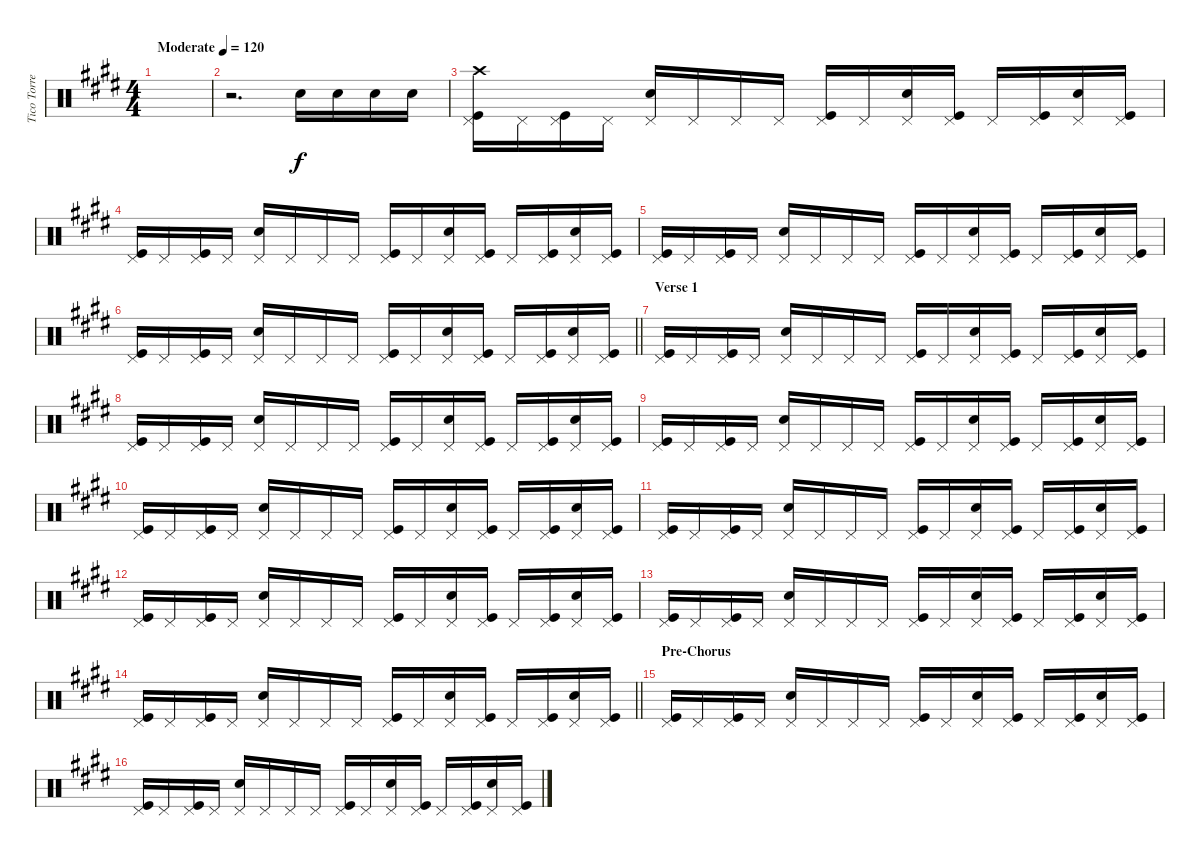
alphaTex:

\track ("Tico Torres (Drums)" "Tico Torre") {instrument percussion}
\staff {score}
\articulation defaults
\ts (4 4)
\tempo (120 "Moderate")
\clef neutral
\ks c#minor
|
r.2{d} "Electric Snare (hit)".16 "Electric Snare (hit)".16 "Electric Snare (hit)".16 "Electric Snare (hit)".16 |
("Crash high (hit)" "Pedal Hi-Hat (hit)" "Kick (hit)").16 "Pedal Hi-Hat (hit)".16 ("Pedal Hi-Hat (hit)" "Kick (hit)").16 "Pedal Hi-Hat (hit)".16 ("Electric Snare (hit)" "Pedal Hi-Hat (hit)").16 "Pedal Hi-Hat (hit)".16 "Pedal Hi-Hat (hit)".16 "Pedal Hi-Hat (hit)".16 ("Pedal Hi-Hat (hit)" "Kick (hit)").16 "Pedal Hi-Hat (hit)".16 ("Electric Snare (hit)" "Pedal Hi-Hat (hit)").16 ("Pedal Hi-Hat (hit)" "Kick (hit)").16 "Pedal Hi-Hat (hit)".16 ("Pedal Hi-Hat (hit)" "Kick (hit)").16 ("Electric Snare (hit)" "Pedal Hi-Hat (hit)").16 ("Pedal Hi-Hat (hit)" "Kick (hit)").16 |
("Pedal Hi-Hat (hit)" "Kick (hit)").16 "Pedal Hi-Hat (hit)".16 ("Pedal Hi-Hat (hit)" "Kick (hit)").16 "Pedal Hi-Hat (hit)".16 ("Electric Snare (hit)" "Pedal Hi-Hat (hit)").16 "Pedal Hi-Hat (hit)".16 "Pedal Hi-Hat (hit)".16 "Pedal Hi-Hat (hit)".16 ("Pedal Hi-Hat (hit)" "Kick (hit)").16 "Pedal Hi-Hat (hit)".16 ("Electric Snare (hit)" "Pedal Hi-Hat (hit)").16 ("Pedal Hi-Hat (hit)" "Kick (hit)").16 "Pedal Hi-Hat (hit)".16 ("Pedal Hi-Hat (hit)" "Kick (hit)").16 ("Electric Snare (hit)" "Pedal Hi-Hat (hit)").16 ("Pedal Hi-Hat (hit)" "Kick (hit)").16 |
("Pedal Hi-Hat (hit)" "Kick (hit)").16 "Pedal Hi-Hat (hit)".16 ("Pedal Hi-Hat (hit)" "Kick (hit)").16 "Pedal Hi-Hat (hit)".16 ("Electric Snare (hit)" "Pedal Hi-Hat (hit)").16 "Pedal Hi-Hat (hit)".16 "Pedal Hi-Hat (hit)".16 "Pedal Hi-Hat (hit)".16 ("Pedal Hi-Hat (hit)" "Kick (hit)").16 "Pedal Hi-Hat (hit)".16 ("Electric Snare (hit)" "Pedal Hi-Hat (hit)").16 ("Pedal Hi-Hat (hit)" "Kick (hit)").16 "Pedal Hi-Hat (hit)".16 ("Pedal Hi-Hat (hit)" "Kick (hit)").16 ("Electric Snare (hit)" "Pedal Hi-Hat (hit)").16 ("Pedal Hi-Hat (hit)" "Kick (hit)").16 |
\barLineRight lightlight
("Pedal Hi-Hat (hit)" "Kick (hit)").16 "Pedal Hi-Hat (hit)".16 ("Pedal Hi-Hat (hit)" "Kick (hit)").16 "Pedal Hi-Hat (hit)".16 ("Electric Snare (hit)" "Pedal Hi-Hat (hit)").16 "Pedal Hi-Hat (hit)".16 "Pedal Hi-Hat (hit)".16 "Pedal Hi-Hat (hit)".16 ("Pedal Hi-Hat (hit)" "Kick (hit)").16 "Pedal Hi-Hat (hit)".16 ("Electric Snare (hit)" "Pedal Hi-Hat (hit)").16 ("Pedal Hi-Hat (hit)" "Kick (hit)").16 "Pedal Hi-Hat (hit)".16 ("Pedal Hi-Hat (hit)" "Kick (hit)").16 ("Electric Snare (hit)" "Pedal Hi-Hat (hit)").16 ("Pedal Hi-Hat (hit)" "Kick (hit)").16 |
\section ("" "Verse 1")
("Pedal Hi-Hat (hit)" "Kick (hit)").16 "Pedal Hi-Hat (hit)".16 ("Pedal Hi-Hat (hit)" "Kick (hit)").16 "Pedal Hi-Hat (hit)".16 ("Electric Snare (hit)" "Pedal Hi-Hat (hit)").16 "Pedal Hi-Hat (hit)".16 "Pedal Hi-Hat (hit)".16 "Pedal Hi-Hat (hit)".16 ("Pedal Hi-Hat (hit)" "Kick (hit)").16 "Pedal Hi-Hat (hit)".16 ("Electric Snare (hit)" "Pedal Hi-Hat (hit)").16 ("Pedal Hi-Hat (hit)" "Kick (hit)").16 "Pedal Hi-Hat (hit)".16 ("Pedal Hi-Hat (hit)" "Kick (hit)").16 ("Electric Snare (hit)" "Pedal Hi-Hat (hit)").16 ("Pedal Hi-Hat (hit)" "Kick (hit)").16 |
("Pedal Hi-Hat (hit)" "Kick (hit)").16 "Pedal Hi-Hat (hit)".16 ("Pedal Hi-Hat (hit)" "Kick (hit)").16 "Pedal Hi-Hat (hit)".16 ("Electric Snare (hit)" "Pedal Hi-Hat (hit)").16 "Pedal Hi-Hat (hit)".16 "Pedal Hi-Hat (hit)".16 "Pedal Hi-Hat (hit)".16 ("Pedal Hi-Hat (hit)" "Kick (hit)").16 "Pedal Hi-Hat (hit)".16 ("Electric Snare (hit)" "Pedal Hi-Hat (hit)").16 ("Pedal Hi-Hat (hit)" "Kick (hit)").16 "Pedal Hi-Hat (hit)".16 ("Pedal Hi-Hat (hit)" "Kick (hit)").16 ("Electric Snare (hit)" "Pedal Hi-Hat (hit)").16 ("Pedal Hi-Hat (hit)" "Kick (hit)").16 |
("Pedal Hi-Hat (hit)" "Kick (hit)").16 "Pedal Hi-Hat (hit)".16 ("Pedal Hi-Hat (hit)" "Kick (hit)").16 "Pedal Hi-Hat (hit)".16 ("Electric Snare (hit)" "Pedal Hi-Hat (hit)").16 "Pedal Hi-Hat (hit)".16 "Pedal Hi-Hat (hit)".16 "Pedal Hi-Hat (hit)".16 ("Pedal Hi-Hat (hit)" "Kick (hit)").16 "Pedal Hi-Hat (hit)".16 ("Electric Snare (hit)" "Pedal Hi-Hat (hit)").16 ("Pedal Hi-Hat (hit)" "Kick (hit)").16 "Pedal Hi-Hat (hit)".16 ("Pedal Hi-Hat (hit)" "Kick (hit)").16 ("Electric Snare (hit)" "Pedal Hi-Hat (hit)").16 ("Pedal Hi-Hat (hit)" "Kick (hit)").16 |
("Pedal Hi-Hat (hit)" "Kick (hit)").16 "Pedal Hi-Hat (hit)".16 ("Pedal Hi-Hat (hit)" "Kick (hit)").16 "Pedal Hi-Hat (hit)".16 ("Electric Snare (hit)" "Pedal Hi-Hat (hit)").16 "Pedal Hi-Hat (hit)".16 "Pedal Hi-Hat (hit)".16 "Pedal Hi-Hat (hit)".16 ("Pedal Hi-Hat (hit)" "Kick (hit)").16 "Pedal Hi-Hat (hit)".16 ("Electric Snare (hit)" "Pedal Hi-Hat (hit)").16 ("Pedal Hi-Hat (hit)" "Kick (hit)").16 "Pedal Hi-Hat (hit)".16 ("Pedal Hi-Hat (hit)" "Kick (hit)").16 ("Electric Snare (hit)" "Pedal Hi-Hat (hit)").16 ("Pedal Hi-Hat (hit)" "Kick (hit)").16 |
("Pedal Hi-Hat (hit)" "Kick (hit)").16 "Pedal Hi-Hat (hit)".16 ("Pedal Hi-Hat (hit)" "Kick (hit)").16 "Pedal Hi-Hat (hit)".16 ("Electric Snare (hit)" "Pedal Hi-Hat (hit)").16 "Pedal Hi-Hat (hit)".16 "Pedal Hi-Hat (hit)".16 "Pedal Hi-Hat (hit)".16 ("Pedal Hi-Hat (hit)" "Kick (hit)").16 "Pedal Hi-Hat (hit)".16 ("Electric Snare (hit)" "Pedal Hi-Hat (hit)").16 ("Pedal Hi-Hat (hit)" "Kick (hit)").16 "Pedal Hi-Hat (hit)".16 ("Pedal Hi-Hat (hit)" "Kick (hit)").16 ("Electric Snare (hit)" "Pedal Hi-Hat (hit)").16 ("Pedal Hi-Hat (hit)" "Kick (hit)").16 |
("Pedal Hi-Hat (hit)" "Kick (hit)").16 "Pedal Hi-Hat (hit)".16 ("Pedal Hi-Hat (hit)" "Kick (hit)").16 "Pedal Hi-Hat (hit)".16 ("Electric Snare (hit)" "Pedal Hi-Hat (hit)").16 "Pedal Hi-Hat (hit)".16 "Pedal Hi-Hat (hit)".16 "Pedal Hi-Hat (hit)".16 ("Pedal Hi-Hat (hit)" "Kick (hit)").16 "Pedal Hi-Hat (hit)".16 ("Electric Snare (hit)" "Pedal Hi-Hat (hit)").16 ("Pedal Hi-Hat (hit)" "Kick (hit)").16 "Pedal Hi-Hat (hit)".16 ("Pedal Hi-Hat (hit)" "Kick (hit)").16 ("Electric Snare (hit)" "Pedal Hi-Hat (hit)").16 ("Pedal Hi-Hat (hit)" "Kick (hit)").16 |
("Pedal Hi-Hat (hit)" "Kick (hit)").16 "Pedal Hi-Hat (hit)".16 ("Pedal Hi-Hat (hit)" "Kick (hit)").16 "Pedal Hi-Hat (hit)".16 ("Electric Snare (hit)" "Pedal Hi-Hat (hit)").16 "Pedal Hi-Hat (hit)".16 "Pedal Hi-Hat (hit)".16 "Pedal Hi-Hat (hit)".16 ("Pedal Hi-Hat (hit)" "Kick (hit)").16 "Pedal Hi-Hat (hit)".16 ("Electric Snare (hit)" "Pedal Hi-Hat (hit)").16 ("Pedal Hi-Hat (hit)" "Kick (hit)").16 "Pedal Hi-Hat (hit)".16 ("Pedal Hi-Hat (hit)" "Kick (hit)").16 ("Electric Snare (hit)" "Pedal Hi-Hat (hit)").16 ("Pedal Hi-Hat (hit)" "Kick (hit)").16 |
\barLineRight lightlight
("Pedal Hi-Hat (hit)" "Kick (hit)").16 "Pedal Hi-Hat (hit)".16 ("Pedal Hi-Hat (hit)" "Kick (hit)").16 "Pedal Hi-Hat (hit)".16 ("Electric Snare (hit)" "Pedal Hi-Hat (hit)").16 "Pedal Hi-Hat (hit)".16 "Pedal Hi-Hat (hit)".16 "Pedal Hi-Hat (hit)".16 ("Pedal Hi-Hat (hit)" "Kick (hit)").16 "Pedal Hi-Hat (hit)".16 ("Electric Snare (hit)" "Pedal Hi-Hat (hit)").16 ("Pedal Hi-Hat (hit)" "Kick (hit)").16 "Pedal Hi-Hat (hit)".16 ("Pedal Hi-Hat (hit)" "Kick (hit)").16 ("Electric Snare (hit)" "Pedal Hi-Hat (hit)").16 ("Pedal Hi-Hat (hit)" "Kick (hit)").16 |
\section ("" "Pre-Chorus")
("Pedal Hi-Hat (hit)" "Kick (hit)").16 "Pedal Hi-Hat (hit)".16 ("Pedal Hi-Hat (hit)" "Kick (hit)").16 "Pedal Hi-Hat (hit)".16 ("Electric Snare (hit)" "Pedal Hi-Hat (hit)").16 "Pedal Hi-Hat (hit)".16 "Pedal Hi-Hat (hit)".16 "Pedal Hi-Hat (hit)".16 ("Pedal Hi-Hat (hit)" "Kick (hit)").16 "Pedal Hi-Hat (hit)".16 ("Electric Snare (hit)" "Pedal Hi-Hat (hit)").16 ("Pedal Hi-Hat (hit)" "Kick (hit)").16 "Pedal Hi-Hat (hit)".16 ("Pedal Hi-Hat (hit)" "Kick (hit)").16 ("Electric Snare (hit)" "Pedal Hi-Hat (hit)").16 ("Pedal Hi-Hat (hit)" "Kick (hit)").16 |
("Pedal Hi-Hat (hit)" "Kick (hit)").16 "Pedal Hi-Hat (hit)".16 ("Pedal Hi-Hat (hit)" "Kick (hit)").16 "Pedal Hi-Hat (hit)".16 ("Electric Snare (hit)" "Pedal Hi-Hat (hit)").16 "Pedal Hi-Hat (hit)".16 "Pedal Hi-Hat (hit)".16 "Pedal Hi-Hat (hit)".16 ("Pedal Hi-Hat (hit)" "Kick (hit)").16 "Pedal Hi-Hat (hit)".16 ("Electric Snare (hit)" "Pedal Hi-Hat (hit)").16 ("Pedal Hi-Hat (hit)" "Kick (hit)").16 "Pedal Hi-Hat (hit)".16 ("Pedal Hi-Hat (hit)" "Kick (hit)").16 ("Electric Snare (hit)" "Pedal Hi-Hat (hit)").16 ("Pedal Hi-Hat (hit)" "Kick (hit)").16
